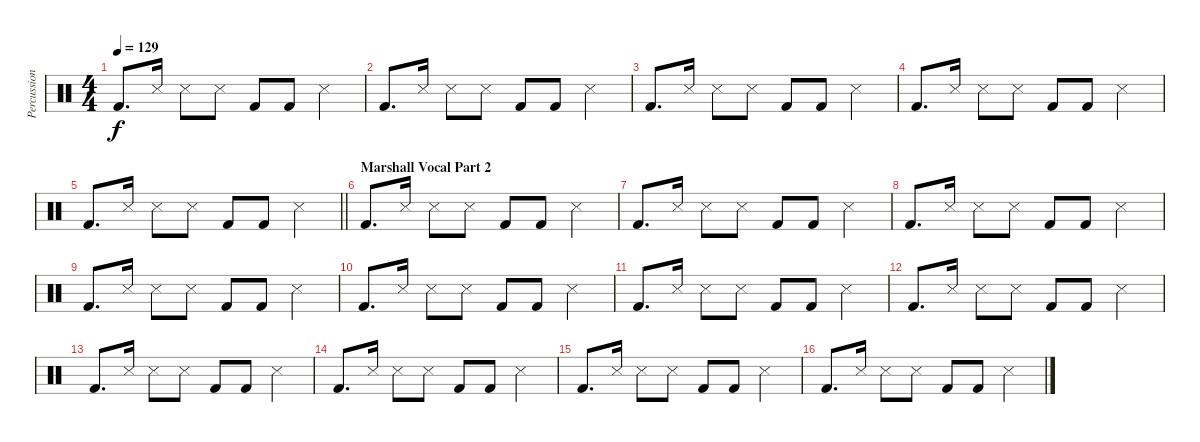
\track ("Percussion (Joel)" "Percussion") {instrument percussion}
\staff {score}
\articulation defaults
\ts (4 4)
\tempo 129
\clef neutral
\ks c "Kick (hit) 2".8{d dy f} "Snare (side stick) 3".16 "Snare (side stick) 3".8 "Snare (side stick) 3".8 "Kick (hit) 2".8 "Kick (hit) 2".8 "Snare (side stick) 3".4
|
"Kick (hit) 2".8{d} "Snare (side stick) 3".16 "Snare (side stick) 3".8 "Snare (side stick) 3".8 "Kick (hit) 2".8 "Kick (hit) 2".8 "Snare (side stick) 3".4 |
"Kick (hit) 2".8{d} "Snare (side stick) 3".16 "Snare (side stick) 3".8 "Snare (side stick) 3".8 "Kick (hit) 2".8 "Kick (hit) 2".8 "Snare (side stick) 3".4 |
"Kick (hit) 2".8{d} "Snare (side stick) 3".16 "Snare (side stick) 3".8 "Snare (side stick) 3".8 "Kick (hit) 2".8 "Kick (hit) 2".8 "Snare (side stick) 3".4 |
\barLineRight lightlight "Kick (hit) 2".8{d} "Snare (side stick) 3".16 "Snare (side stick) 3".8 "Snare (side stick) 3".8 "Kick (hit) 2".8 "Kick (hit) 2".8 "Snare (side stick) 3".4
|
\section ("" "Marshall Vocal Part 2")
"Kick (hit) 2".8{d} "Snare (side stick) 3".16 "Snare (side stick) 3".8 "Snare (side stick) 3".8 "Kick (hit) 2".8 "Kick (hit) 2".8 "Snare (side stick) 3".4 |
"Kick (hit) 2".8{d} "Snare (side stick) 3".16 "Snare (side stick) 3".8 "Snare (side stick) 3".8 "Kick (hit) 2".8 "Kick (hit) 2".8 "Snare (side stick) 3".4 |
"Kick (hit) 2".8{d} "Snare (side stick) 3".16 "Snare (side stick) 3".8 "Snare (side stick) 3".8 "Kick (hit) 2".8 "Kick (hit) 2".8 "Snare (side stick) 3".4 |
"Kick (hit) 2".8{d} "Snare (side stick) 3".16 "Snare (side stick) 3".8 "Snare (side stick) 3".8 "Kick (hit) 2".8 "Kick (hit) 2".8 "Snare (side stick) 3".4 |
"Kick (hit) 2".8{d} "Snare (side stick) 3".16 "Snare (side stick) 3".8 "Snare (side stick) 3".8 "Kick (hit) 2".8 "Kick (hit) 2".8 "Snare (side stick) 3".4 |
"Kick (hit) 2".8{d} "Snare (side stick) 3".16 "Snare (side stick) 3".8 "Snare (side stick) 3".8 "Kick (hit) 2".8 "Kick (hit) 2".8 "Snare (side stick) 3".4 |
"Kick (hit) 2".8{d} "Snare (side stick) 3".16 "Snare (side stick) 3".8 "Snare (side stick) 3".8 "Kick (hit) 2".8 "Kick (hit) 2".8 "Snare (side stick) 3".4 |
"Kick (hit) 2".8{d} "Snare (side stick) 3".16 "Snare (side stick) 3".8 "Snare (side stick) 3".8 "Kick (hit) 2".8 "Kick (hit) 2".8 "Snare (side stick) 3".4 |
"Kick (hit) 2".8{d} "Snare (side stick) 3".16 "Snare (side stick) 3".8 "Snare (side stick) 3".8 "Kick (hit) 2".8 "Kick (hit) 2".8 "Snare (side stick) 3".4 |
"Kick (hit) 2".8{d} "Snare (side stick) 3".16 "Snare (side stick) 3".8 "Snare (side stick) 3".8 "Kick (hit) 2".8 "Kick (hit) 2".8 "Snare (side stick) 3".4 |
"Kick (hit) 2".8{d} "Snare (side stick) 3".16 "Snare (side stick) 3".8 "Snare (side stick) 3".8 "Kick (hit) 2".8 "Kick (hit) 2".8 "Snare (side stick) 3".4
